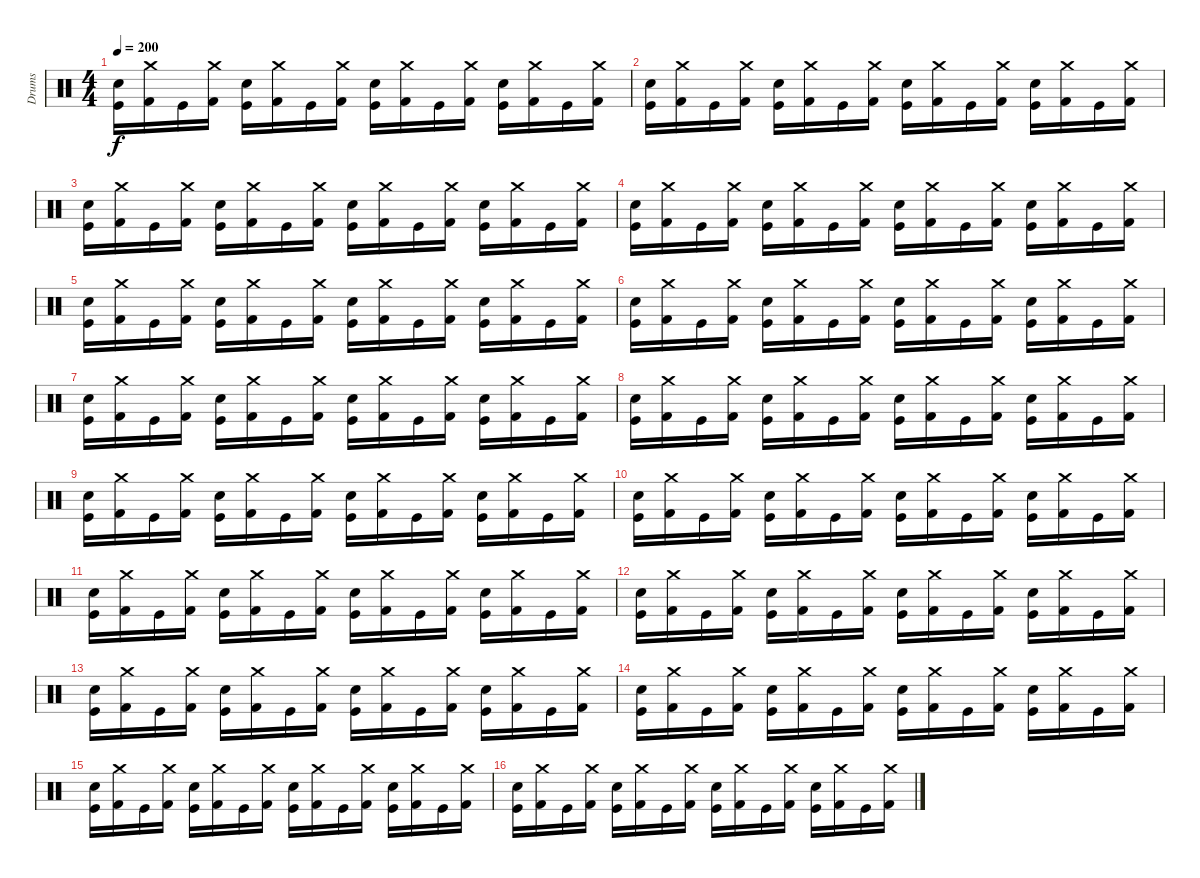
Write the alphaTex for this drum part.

\track ("Drums" "Drums") {instrument percussion}
\staff {score}
\articulation defaults
\ts (4 4)
\tempo 200
\clef neutral
\ks c
("Electric Snare (hit)" "Kick (hit)").16{dy f} ("Crash medium (hit)" "Kick (hit) 2").16 "Kick (hit)".16 ("Crash medium (hit)" "Kick (hit) 2").16 ("Electric Snare (hit)" "Kick (hit)").16 ("Crash medium (hit)" "Kick (hit) 2").16 "Kick (hit)".16 ("Crash medium (hit)" "Kick (hit) 2").16 ("Electric Snare (hit)" "Kick (hit)").16 ("Crash medium (hit)" "Kick (hit) 2").16 "Kick (hit)".16 ("Crash medium (hit)" "Kick (hit) 2").16 ("Electric Snare (hit)" "Kick (hit)").16 ("Crash medium (hit)" "Kick (hit) 2").16 "Kick (hit)".16 ("Crash medium (hit)" "Kick (hit) 2").16 |
("Electric Snare (hit)" "Kick (hit)").16 ("Crash medium (hit)" "Kick (hit) 2").16 "Kick (hit)".16 ("Crash medium (hit)" "Kick (hit) 2").16 ("Electric Snare (hit)" "Kick (hit)").16 ("Crash medium (hit)" "Kick (hit) 2").16 "Kick (hit)".16 ("Crash medium (hit)" "Kick (hit) 2").16 ("Electric Snare (hit)" "Kick (hit)").16 ("Crash medium (hit)" "Kick (hit) 2").16 "Kick (hit)".16 ("Crash medium (hit)" "Kick (hit) 2").16 ("Electric Snare (hit)" "Kick (hit)").16 ("Crash medium (hit)" "Kick (hit) 2").16 "Kick (hit)".16 ("Crash medium (hit)" "Kick (hit) 2").16 |
("Electric Snare (hit)" "Kick (hit)").16 ("Crash medium (hit)" "Kick (hit) 2").16 "Kick (hit)".16 ("Crash medium (hit)" "Kick (hit) 2").16 ("Electric Snare (hit)" "Kick (hit)").16 ("Crash medium (hit)" "Kick (hit) 2").16 "Kick (hit)".16 ("Crash medium (hit)" "Kick (hit) 2").16 ("Electric Snare (hit)" "Kick (hit)").16 ("Crash medium (hit)" "Kick (hit) 2").16 "Kick (hit)".16 ("Crash medium (hit)" "Kick (hit) 2").16 ("Electric Snare (hit)" "Kick (hit)").16 ("Crash medium (hit)" "Kick (hit) 2").16 "Kick (hit)".16 ("Crash medium (hit)" "Kick (hit) 2").16 |
("Electric Snare (hit)" "Kick (hit)").16 ("Crash medium (hit)" "Kick (hit) 2").16 "Kick (hit)".16 ("Crash medium (hit)" "Kick (hit) 2").16 ("Electric Snare (hit)" "Kick (hit)").16 ("Crash medium (hit)" "Kick (hit) 2").16 "Kick (hit)".16 ("Crash medium (hit)" "Kick (hit) 2").16 ("Electric Snare (hit)" "Kick (hit)").16 ("Crash medium (hit)" "Kick (hit) 2").16 "Kick (hit)".16 ("Crash medium (hit)" "Kick (hit) 2").16 ("Electric Snare (hit)" "Kick (hit)").16 ("Crash medium (hit)" "Kick (hit) 2").16 "Kick (hit)".16 ("Crash medium (hit)" "Kick (hit) 2").16 |
("Electric Snare (hit)" "Kick (hit)").16 ("Crash medium (hit)" "Kick (hit) 2").16 "Kick (hit)".16 ("Crash medium (hit)" "Kick (hit) 2").16 ("Electric Snare (hit)" "Kick (hit)").16 ("Crash medium (hit)" "Kick (hit) 2").16 "Kick (hit)".16 ("Crash medium (hit)" "Kick (hit) 2").16 ("Electric Snare (hit)" "Kick (hit)").16 ("Crash medium (hit)" "Kick (hit) 2").16 "Kick (hit)".16 ("Crash medium (hit)" "Kick (hit) 2").16 ("Electric Snare (hit)" "Kick (hit)").16 ("Crash medium (hit)" "Kick (hit) 2").16 "Kick (hit)".16 ("Crash medium (hit)" "Kick (hit) 2").16 |
("Electric Snare (hit)" "Kick (hit)").16 ("Crash medium (hit)" "Kick (hit) 2").16 "Kick (hit)".16 ("Crash medium (hit)" "Kick (hit) 2").16 ("Electric Snare (hit)" "Kick (hit)").16 ("Crash medium (hit)" "Kick (hit) 2").16 "Kick (hit)".16 ("Crash medium (hit)" "Kick (hit) 2").16 ("Electric Snare (hit)" "Kick (hit)").16 ("Crash medium (hit)" "Kick (hit) 2").16 "Kick (hit)".16 ("Crash medium (hit)" "Kick (hit) 2").16 ("Electric Snare (hit)" "Kick (hit)").16 ("Crash medium (hit)" "Kick (hit) 2").16 "Kick (hit)".16 ("Crash medium (hit)" "Kick (hit) 2").16 |
("Electric Snare (hit)" "Kick (hit)").16 ("Crash medium (hit)" "Kick (hit) 2").16 "Kick (hit)".16 ("Crash medium (hit)" "Kick (hit) 2").16 ("Electric Snare (hit)" "Kick (hit)").16 ("Crash medium (hit)" "Kick (hit) 2").16 "Kick (hit)".16 ("Crash medium (hit)" "Kick (hit) 2").16 ("Electric Snare (hit)" "Kick (hit)").16 ("Crash medium (hit)" "Kick (hit) 2").16 "Kick (hit)".16 ("Crash medium (hit)" "Kick (hit) 2").16 ("Electric Snare (hit)" "Kick (hit)").16 ("Crash medium (hit)" "Kick (hit) 2").16 "Kick (hit)".16 ("Crash medium (hit)" "Kick (hit) 2").16 |
("Electric Snare (hit)" "Kick (hit)").16 ("Crash medium (hit)" "Kick (hit) 2").16 "Kick (hit)".16 ("Crash medium (hit)" "Kick (hit) 2").16 ("Electric Snare (hit)" "Kick (hit)").16 ("Crash medium (hit)" "Kick (hit) 2").16 "Kick (hit)".16 ("Crash medium (hit)" "Kick (hit) 2").16 ("Electric Snare (hit)" "Kick (hit)").16 ("Crash medium (hit)" "Kick (hit) 2").16 "Kick (hit)".16 ("Crash medium (hit)" "Kick (hit) 2").16 ("Electric Snare (hit)" "Kick (hit)").16 ("Crash medium (hit)" "Kick (hit) 2").16 "Kick (hit)".16 ("Crash medium (hit)" "Kick (hit) 2").16 |
("Electric Snare (hit)" "Kick (hit)").16 ("Crash medium (hit)" "Kick (hit) 2").16 "Kick (hit)".16 ("Crash medium (hit)" "Kick (hit) 2").16 ("Electric Snare (hit)" "Kick (hit)").16 ("Crash medium (hit)" "Kick (hit) 2").16 "Kick (hit)".16 ("Crash medium (hit)" "Kick (hit) 2").16 ("Electric Snare (hit)" "Kick (hit)").16 ("Crash medium (hit)" "Kick (hit) 2").16 "Kick (hit)".16 ("Crash medium (hit)" "Kick (hit) 2").16 ("Electric Snare (hit)" "Kick (hit)").16 ("Crash medium (hit)" "Kick (hit) 2").16 "Kick (hit)".16 ("Crash medium (hit)" "Kick (hit) 2").16 |
("Electric Snare (hit)" "Kick (hit)").16 ("Crash medium (hit)" "Kick (hit) 2").16 "Kick (hit)".16 ("Crash medium (hit)" "Kick (hit) 2").16 ("Electric Snare (hit)" "Kick (hit)").16 ("Crash medium (hit)" "Kick (hit) 2").16 "Kick (hit)".16 ("Crash medium (hit)" "Kick (hit) 2").16 ("Electric Snare (hit)" "Kick (hit)").16 ("Crash medium (hit)" "Kick (hit) 2").16 "Kick (hit)".16 ("Crash medium (hit)" "Kick (hit) 2").16 ("Electric Snare (hit)" "Kick (hit)").16 ("Crash medium (hit)" "Kick (hit) 2").16 "Kick (hit)".16 ("Crash medium (hit)" "Kick (hit) 2").16 |
("Electric Snare (hit)" "Kick (hit)").16 ("Crash medium (hit)" "Kick (hit) 2").16 "Kick (hit)".16 ("Crash medium (hit)" "Kick (hit) 2").16 ("Electric Snare (hit)" "Kick (hit)").16 ("Crash medium (hit)" "Kick (hit) 2").16 "Kick (hit)".16 ("Crash medium (hit)" "Kick (hit) 2").16 ("Electric Snare (hit)" "Kick (hit)").16 ("Crash medium (hit)" "Kick (hit) 2").16 "Kick (hit)".16 ("Crash medium (hit)" "Kick (hit) 2").16 ("Electric Snare (hit)" "Kick (hit)").16 ("Crash medium (hit)" "Kick (hit) 2").16 "Kick (hit)".16 ("Crash medium (hit)" "Kick (hit) 2").16 |
("Electric Snare (hit)" "Kick (hit)").16 ("Crash medium (hit)" "Kick (hit) 2").16 "Kick (hit)".16 ("Crash medium (hit)" "Kick (hit) 2").16 ("Electric Snare (hit)" "Kick (hit)").16 ("Crash medium (hit)" "Kick (hit) 2").16 "Kick (hit)".16 ("Crash medium (hit)" "Kick (hit) 2").16 ("Electric Snare (hit)" "Kick (hit)").16 ("Crash medium (hit)" "Kick (hit) 2").16 "Kick (hit)".16 ("Crash medium (hit)" "Kick (hit) 2").16 ("Electric Snare (hit)" "Kick (hit)").16 ("Crash medium (hit)" "Kick (hit) 2").16 "Kick (hit)".16 ("Crash medium (hit)" "Kick (hit) 2").16 |
("Electric Snare (hit)" "Kick (hit)").16 ("Crash medium (hit)" "Kick (hit) 2").16 "Kick (hit)".16 ("Crash medium (hit)" "Kick (hit) 2").16 ("Electric Snare (hit)" "Kick (hit)").16 ("Crash medium (hit)" "Kick (hit) 2").16 "Kick (hit)".16 ("Crash medium (hit)" "Kick (hit) 2").16 ("Electric Snare (hit)" "Kick (hit)").16 ("Crash medium (hit)" "Kick (hit) 2").16 "Kick (hit)".16 ("Crash medium (hit)" "Kick (hit) 2").16 ("Electric Snare (hit)" "Kick (hit)").16 ("Crash medium (hit)" "Kick (hit) 2").16 "Kick (hit)".16 ("Crash medium (hit)" "Kick (hit) 2").16 |
("Electric Snare (hit)" "Kick (hit)").16 ("Crash medium (hit)" "Kick (hit) 2").16 "Kick (hit)".16 ("Crash medium (hit)" "Kick (hit) 2").16 ("Electric Snare (hit)" "Kick (hit)").16 ("Crash medium (hit)" "Kick (hit) 2").16 "Kick (hit)".16 ("Crash medium (hit)" "Kick (hit) 2").16 ("Electric Snare (hit)" "Kick (hit)").16 ("Crash medium (hit)" "Kick (hit) 2").16 "Kick (hit)".16 ("Crash medium (hit)" "Kick (hit) 2").16 ("Electric Snare (hit)" "Kick (hit)").16 ("Crash medium (hit)" "Kick (hit) 2").16 "Kick (hit)".16 ("Crash medium (hit)" "Kick (hit) 2").16 |
("Electric Snare (hit)" "Kick (hit)").16 ("Crash medium (hit)" "Kick (hit) 2").16 "Kick (hit)".16 ("Crash medium (hit)" "Kick (hit) 2").16 ("Electric Snare (hit)" "Kick (hit)").16 ("Crash medium (hit)" "Kick (hit) 2").16 "Kick (hit)".16 ("Crash medium (hit)" "Kick (hit) 2").16 ("Electric Snare (hit)" "Kick (hit)").16 ("Crash medium (hit)" "Kick (hit) 2").16 "Kick (hit)".16 ("Crash medium (hit)" "Kick (hit) 2").16 ("Electric Snare (hit)" "Kick (hit)").16 ("Crash medium (hit)" "Kick (hit) 2").16 "Kick (hit)".16 ("Crash medium (hit)" "Kick (hit) 2").16 |
("Electric Snare (hit)" "Kick (hit)").16 ("Crash medium (hit)" "Kick (hit) 2").16 "Kick (hit)".16 ("Crash medium (hit)" "Kick (hit) 2").16 ("Electric Snare (hit)" "Kick (hit)").16 ("Crash medium (hit)" "Kick (hit) 2").16 "Kick (hit)".16 ("Crash medium (hit)" "Kick (hit) 2").16 ("Electric Snare (hit)" "Kick (hit)").16 ("Crash medium (hit)" "Kick (hit) 2").16 "Kick (hit)".16 ("Crash medium (hit)" "Kick (hit) 2").16 ("Electric Snare (hit)" "Kick (hit)").16 ("Crash medium (hit)" "Kick (hit) 2").16 "Kick (hit)".16 ("Crash medium (hit)" "Kick (hit) 2").16
